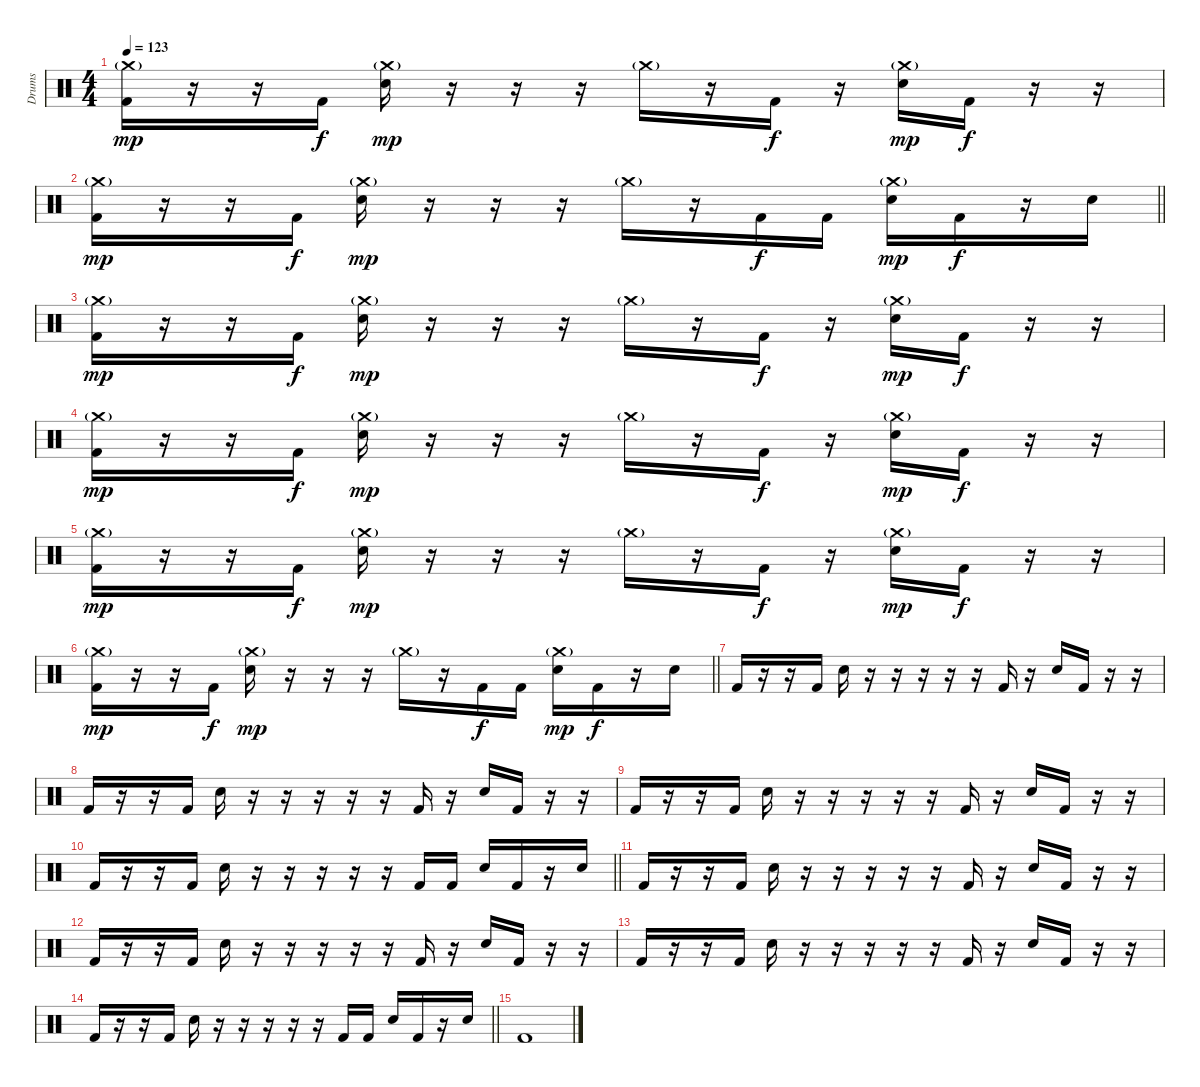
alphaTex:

\track ("Drums" "Drums") {instrument percussion}
\staff {score}
\articulation defaults
\ts (4 4)
\tempo 123
\clef neutral
\ks c
("Crash medium (hit)"{g} "Kick (hit) 2").16{dy mp} r.16 r.16 "Kick (hit) 2".16{dy f} ("Crash medium (hit)"{g} "Electric Snare (hit)").16{dy mp} r.16 r.16 r.16 "Crash medium (hit)"{g}.16 r.16 "Kick (hit) 2".16{dy f} r.16 ("Crash medium (hit)"{g} "Electric Snare (hit)").16{dy mp} "Kick (hit) 2".16{dy f} r.16 r.16 |
\barLineRight lightlight
("Crash medium (hit)"{g} "Kick (hit) 2").16{dy mp} r.16 r.16 "Kick (hit) 2".16{dy f} ("Crash medium (hit)"{g} "Electric Snare (hit)").16{dy mp} r.16 r.16 r.16 "Crash medium (hit)"{g}.16 r.16 "Kick (hit) 2".16{dy f} "Kick (hit) 2".16 ("Crash medium (hit)"{g} "Electric Snare (hit)").16{dy mp} "Kick (hit) 2".16{dy f} r.16 "Electric Snare (hit)".16 |
("Crash medium (hit)"{g} "Kick (hit) 2").16{dy mp} r.16 r.16 "Kick (hit) 2".16{dy f} ("Crash medium (hit)"{g} "Electric Snare (hit)").16{dy mp} r.16 r.16 r.16 "Crash medium (hit)"{g}.16 r.16 "Kick (hit) 2".16{dy f} r.16 ("Crash medium (hit)"{g} "Electric Snare (hit)").16{dy mp} "Kick (hit) 2".16{dy f} r.16 r.16 |
("Crash medium (hit)"{g} "Kick (hit) 2").16{dy mp} r.16 r.16 "Kick (hit) 2".16{dy f} ("Crash medium (hit)"{g} "Electric Snare (hit)").16{dy mp} r.16 r.16 r.16 "Crash medium (hit)"{g}.16 r.16 "Kick (hit) 2".16{dy f} r.16 ("Crash medium (hit)"{g} "Electric Snare (hit)").16{dy mp} "Kick (hit) 2".16{dy f} r.16 r.16 |
("Crash medium (hit)"{g} "Kick (hit) 2").16{dy mp} r.16 r.16 "Kick (hit) 2".16{dy f} ("Crash medium (hit)"{g} "Electric Snare (hit)").16{dy mp} r.16 r.16 r.16 "Crash medium (hit)"{g}.16 r.16 "Kick (hit) 2".16{dy f} r.16 ("Crash medium (hit)"{g} "Electric Snare (hit)").16{dy mp} "Kick (hit) 2".16{dy f} r.16 r.16 |
\barLineRight lightlight
("Crash medium (hit)"{g} "Kick (hit) 2").16{dy mp} r.16 r.16 "Kick (hit) 2".16{dy f} ("Crash medium (hit)"{g} "Electric Snare (hit)").16{dy mp} r.16 r.16 r.16 "Crash medium (hit)"{g}.16 r.16 "Kick (hit) 2".16{dy f} "Kick (hit) 2".16 ("Crash medium (hit)"{g} "Electric Snare (hit)").16{dy mp} "Kick (hit) 2".16{dy f} r.16 "Electric Snare (hit)".16 |
"Kick (hit) 2".16 r.16 r.16 "Kick (hit) 2".16 "Electric Snare (hit)".16 r.16 r.16 r.16 r.16 r.16 "Kick (hit) 2".16 r.16 "Electric Snare (hit)".16 "Kick (hit) 2".16 r.16 r.16 |
"Kick (hit) 2".16 r.16 r.16 "Kick (hit) 2".16 "Electric Snare (hit)".16 r.16 r.16 r.16 r.16 r.16 "Kick (hit) 2".16 r.16 "Electric Snare (hit)".16 "Kick (hit) 2".16 r.16 r.16 |
"Kick (hit) 2".16 r.16 r.16 "Kick (hit) 2".16 "Electric Snare (hit)".16 r.16 r.16 r.16 r.16 r.16 "Kick (hit) 2".16 r.16 "Electric Snare (hit)".16 "Kick (hit) 2".16 r.16 r.16 |
\barLineRight lightlight "Kick (hit) 2".16
r.16 r.16 "Kick (hit) 2".16 "Electric Snare (hit)".16 r.16 r.16 r.16 r.16 r.16 "Kick (hit) 2".16 "Kick (hit) 2".16 "Electric Snare (hit)".16 "Kick (hit) 2".16 r.16 "Electric Snare (hit)".16 |
"Kick (hit) 2".16 r.16 r.16 "Kick (hit) 2".16 "Electric Snare (hit)".16 r.16 r.16 r.16 r.16 r.16 "Kick (hit) 2".16 r.16 "Electric Snare (hit)".16 "Kick (hit) 2".16 r.16 r.16 |
"Kick (hit) 2".16 r.16 r.16 "Kick (hit) 2".16 "Electric Snare (hit)".16 r.16 r.16 r.16 r.16 r.16 "Kick (hit) 2".16 r.16 "Electric Snare (hit)".16 "Kick (hit) 2".16 r.16 r.16 |
"Kick (hit) 2".16 r.16 r.16 "Kick (hit) 2".16 "Electric Snare (hit)".16 r.16 r.16 r.16 r.16 r.16 "Kick (hit) 2".16 r.16 "Electric Snare (hit)".16 "Kick (hit) 2".16 r.16 r.16 |
\barLineRight lightlight "Kick (hit) 2".16
r.16 r.16 "Kick (hit) 2".16 "Electric Snare (hit)".16 r.16 r.16 r.16 r.16 r.16 "Kick (hit) 2".16 "Kick (hit) 2".16 "Electric Snare (hit)".16 "Kick (hit) 2".16 r.16 "Electric Snare (hit)".16 |
"Kick (hit) 2".1
